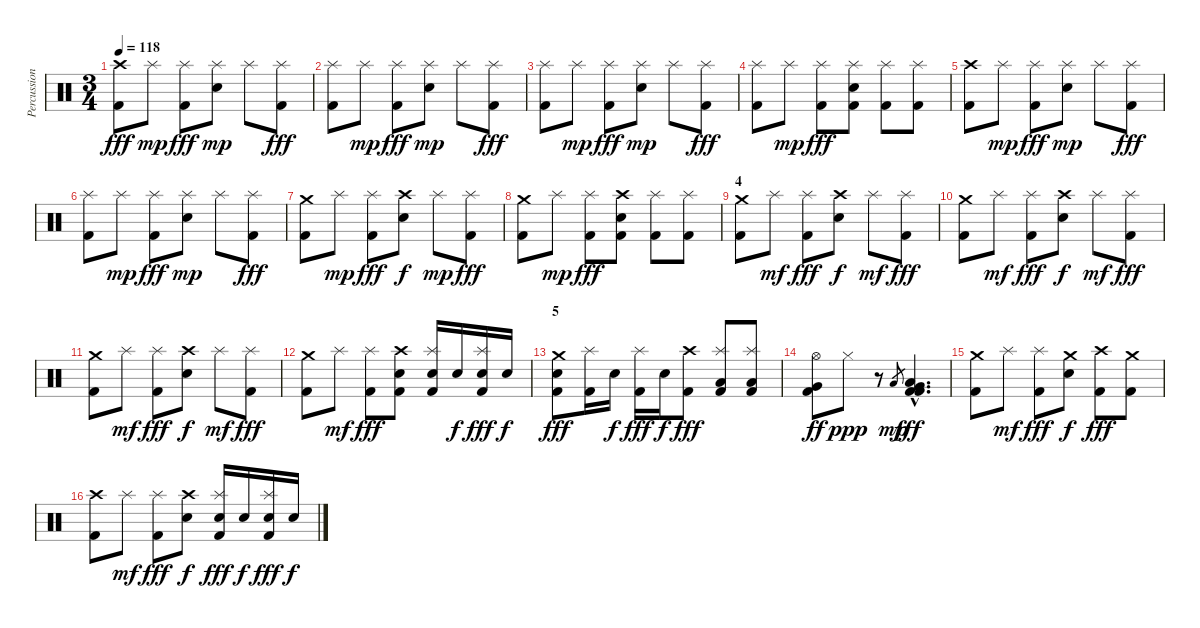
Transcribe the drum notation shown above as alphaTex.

\track ("Percussion" "Percussion") {instrument percussion}
\staff {score}
\articulation defaults
\ts (3 4)
\section ("" "")
\tempo 118
\clef neutral
\ks c
("Crash high (hit)" "Kick (hit) 2").8{dy fff} "Splash (hit)".8{dy mp} ("Splash (hit)" "Kick (hit) 2").8{dy fff} ("Splash (hit)" "Electric Snare (hit)").8{dy mp} "Splash (hit)".8 ("Splash (hit)" "Kick (hit) 2").8{dy fff} |
("Splash (hit)" "Kick (hit) 2").8 "Splash (hit)".8{dy mp} ("Splash (hit)" "Kick (hit) 2").8{dy fff} ("Splash (hit)" "Electric Snare (hit)").8{dy mp} "Splash (hit)".8 ("Splash (hit)" "Kick (hit) 2").8{dy fff} |
("Splash (hit)" "Kick (hit) 2").8 "Splash (hit)".8{dy mp} ("Splash (hit)" "Kick (hit) 2").8{dy fff} ("Splash (hit)" "Electric Snare (hit)").8{dy mp} "Splash (hit)".8 ("Splash (hit)" "Kick (hit) 2").8{dy fff} |
("Splash (hit)" "Kick (hit) 2").8 "Splash (hit)".8{dy mp} ("Splash (hit)" "Kick (hit) 2").8{dy fff} ("Splash (hit)" "Electric Snare (hit)" "Kick (hit) 2").8 ("Splash (hit)" "Kick (hit) 2").8 ("Splash (hit)" "Kick (hit) 2").8 |
("Crash high (hit)" "Kick (hit) 2").8 "Splash (hit)".8{dy mp} ("Splash (hit)" "Kick (hit) 2").8{dy fff} ("Splash (hit)" "Electric Snare (hit)").8{dy mp} "Splash (hit)".8 ("Splash (hit)" "Kick (hit) 2").8{dy fff} |
("Splash (hit)" "Kick (hit) 2").8 "Splash (hit)".8{dy mp} ("Splash (hit)" "Kick (hit) 2").8{dy fff} ("Splash (hit)" "Electric Snare (hit)").8{dy mp} "Splash (hit)".8 ("Splash (hit)" "Kick (hit) 2").8{dy fff} |
("Crash medium (hit)" "Kick (hit) 2").8 "Splash (hit)".8{dy mp} ("Splash (hit)" "Kick (hit) 2").8{dy fff} ("Crash high (hit)" "Electric Snare (hit)").8{dy f} "Splash (hit)".8{dy mp} ("Splash (hit)" "Kick (hit) 2").8{dy fff} |
("Crash medium (hit)" "Kick (hit) 2").8 "Splash (hit)".8{dy mp} ("Splash (hit)" "Kick (hit) 2").8{dy fff} ("Crash high (hit)" "Electric Snare (hit)" "Kick (hit) 2").8 ("Splash (hit)" "Kick (hit) 2").8 ("Splash (hit)" "Kick (hit) 2").8 |
\section ("" "4")
("Crash medium (hit)" "Kick (hit) 2").8 "Splash (hit)".8{dy mf} ("Splash (hit)" "Kick (hit) 2").8{dy fff} ("Crash high (hit)" "Electric Snare (hit)").8{dy f} "Splash (hit)".8{dy mf} ("Splash (hit)" "Kick (hit) 2").8{dy fff} |
("Crash medium (hit)" "Kick (hit) 2").8 "Splash (hit)".8{dy mf} ("Splash (hit)" "Kick (hit) 2").8{dy fff} ("Crash high (hit)" "Electric Snare (hit)").8{dy f} "Splash (hit)".8{dy mf} ("Splash (hit)" "Kick (hit) 2").8{dy fff} |
("Crash medium (hit)" "Kick (hit) 2").8 "Splash (hit)".8{dy mf} ("Splash (hit)" "Kick (hit) 2").8{dy fff} ("Crash high (hit)" "Electric Snare (hit)").8{dy f} "Splash (hit)".8{dy mf} ("Splash (hit)" "Kick (hit) 2").8{dy fff} |
("Crash medium (hit)" "Kick (hit) 2").8 "Splash (hit)".8{dy mf} ("Splash (hit)" "Kick (hit) 2").8{dy fff} ("Crash high (hit)" "Electric Snare (hit)" "Kick (hit) 2").8 ("Splash (hit)" "Electric Snare (hit)" "Kick (hit) 2").16 "Electric Snare (hit)".16{dy f} ("Splash (hit)" "Electric Snare (hit)" "Kick (hit) 2").16{dy fff} "Electric Snare (hit)".16{dy f} |
\section ("" "5")
("Crash medium (hit)" "Electric Snare (hit)" "Kick (hit) 2").8{dy fff} ("Splash (hit)" "Kick (hit) 2").16 "Electric Snare (hit)".16{dy f} ("Splash (hit)" "Kick (hit) 2").16{dy fff} "Electric Snare (hit)".16{dy f} ("Crash high (hit)" "Kick (hit) 2").8{dy fff} ("Splash (hit)" "Low Tom (hit)" "Kick (hit) 2").8 ("Splash (hit)" "Low Tom (hit)" "Kick (hit) 2").8 |
("Hi-Hat (open)" "Very Low Tom (hit)" "Kick (hit) 2").8{dy ff} "Hi-Hat (closed)".8{dy ppp} r.8 "Low Tom (hit)".8{gr dy mp} ("Kick (hit) 2"{hac} "Very Low Tom (hit)"{hac} "Low Tom (hit)"{hac} "Kick (hit) 2"{hac}).4{d dy fff} |
("Crash medium (hit)" "Kick (hit) 2").8 "Splash (hit)".8{dy mf} ("Splash (hit)" "Kick (hit) 2").8{dy fff} ("Crash medium (hit)" "Electric Snare (hit)").8{dy f} ("Crash high (hit)" "Kick (hit) 2").8{dy fff} ("Crash medium (hit)" "Kick (hit) 2").8 |
("Crash high (hit)" "Kick (hit) 2").8 "Splash (hit)".8{dy mf} ("Splash (hit)" "Kick (hit) 2").8{dy fff} ("Crash high (hit)" "Electric Snare (hit)").8{dy f} ("Splash (hit)" "Electric Snare (hit)" "Kick (hit) 2").16{dy fff} "Electric Snare (hit)".16{dy f} ("Splash (hit)" "Electric Snare (hit)" "Kick (hit) 2").16{dy fff} "Electric Snare (hit)".16{dy f}
